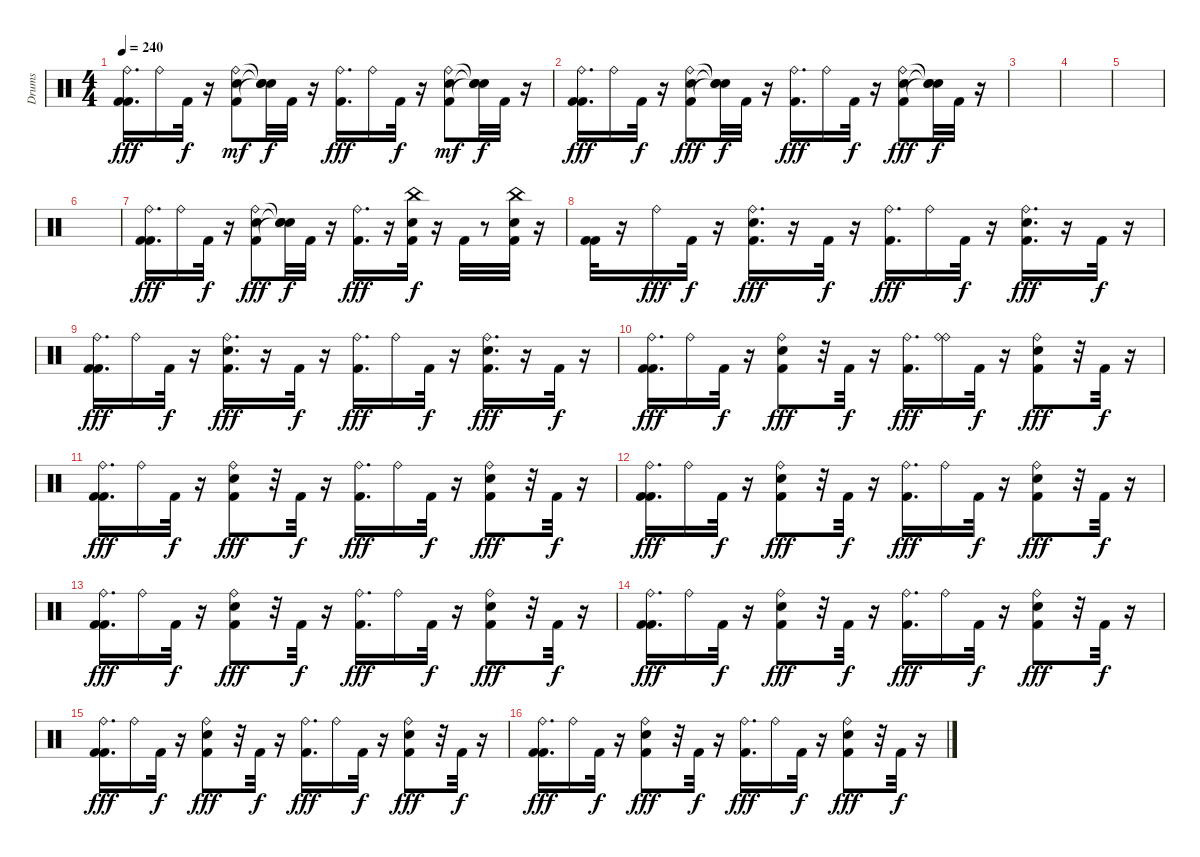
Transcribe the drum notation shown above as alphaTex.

\track ("Drums" "Drums") {instrument percussion}
\staff {score}
\articulation defaults
\ts (4 4)
\tempo 240
\clef neutral
\ks c
("Ride (bell)" "Kick (hit) 2" "Kick (hit) 2").16{d dy fff} "Ride (bell)".16 "Kick (hit) 2".32{dy f} r.16 ("Kick (hit) 2" "Ride (bell)" "Electric Snare (hit)").8{dy mf} ("Snare (hit)"{t} "Snare (hit)"{t} "Snare (hit)"{t}).32{dy f} "Kick (hit) 2".32 r.16 ("Kick (hit) 2" "Ride (bell)").16{d dy fff} "Ride (bell)".16 "Kick (hit) 2".32{dy f} r.16 ("Ride (bell)" "Kick (hit) 2" "Electric Snare (hit)").8{dy mf} ("Snare (hit)"{t} "Snare (hit)"{t} "Snare (hit)"{t}).32{dy f} "Kick (hit) 2".32 r.16 |
("Kick (hit) 2" "Kick (hit) 2" "Ride (bell)").16{d dy fff} "Ride (bell)".16 "Kick (hit) 2".32{dy f} r.16 ("Kick (hit) 2" "Electric Snare (hit)" "Ride (bell)").8{dy fff} ("Snare (hit)"{t} "Snare (hit)"{t} "Snare (hit)"{t}).32{dy f} "Kick (hit) 2".32 r.16 ("Ride (bell)" "Kick (hit) 2").16{d dy fff} "Ride (bell)".16 "Kick (hit) 2".32{dy f} r.16 ("Electric Snare (hit)" "Kick (hit) 2" "Ride (bell)").8{dy fff} ("Snare (hit)"{t} "Snare (hit)"{t} "Snare (hit)"{t}).32{dy f} "Kick (hit) 2".32 r.16 |
|
|
|
|
("Ride (bell)" "Kick (hit) 2" "Kick (hit) 2").16{d dy fff} "Ride (bell)".16 "Kick (hit) 2".32{dy f} r.16 ("Kick (hit) 2" "Electric Snare (hit)" "Ride (bell)").8{dy fff} ("Snare (hit)"{t} "Snare (hit)"{t} "Snare (hit)"{t}).32{dy f} "Kick (hit) 2".32 r.16 ("Ride (bell)" "Kick (hit) 2").16{d dy fff} r.16 ("Kick (hit) 2" "Electric Snare (hit)" "China (hit)").32{dy f} r.16 "Kick (hit) 2".32 r.8 ("Kick (hit) 2" "Electric Snare (hit)" "China (hit)").32 r.16 |
("Kick (hit) 2" "Kick (hit) 2").32 r.16 "Ride (bell)".16{dy fff} "Kick (hit) 2".32{dy f} r.16 ("Kick (hit) 2" "Electric Snare (hit)" "Ride (bell)").16{d dy fff} r.16 "Kick (hit) 2".32{dy f} r.16 ("Ride (bell)" "Kick (hit) 2").16{d dy fff} "Ride (bell)".16 "Kick (hit) 2".32{dy f} r.16 ("Electric Snare (hit)" "Kick (hit) 2" "Ride (bell)").16{d dy fff} r.16 "Kick (hit) 2".32{dy f} r.16 |
("Kick (hit) 2" "Ride (bell)" "Kick (hit) 2").16{d dy fff} "Ride (bell)".16 "Kick (hit) 2".32{dy f} r.16 ("Ride (bell)" "Electric Snare (hit)" "Kick (hit) 2").16{d dy fff} r.16 "Kick (hit) 2".32{dy f} r.16 ("Kick (hit) 2" "Ride (bell)").16{d dy fff} "Ride (bell)".16 "Kick (hit) 2".32{dy f} r.16 ("Electric Snare (hit)" "Kick (hit) 2" "Ride (bell)").16{d dy fff} r.16 "Kick (hit) 2".32{dy f} r.16 |
("Kick (hit) 2" "Kick (hit) 2" "Ride (bell)").16{d dy fff} "Ride (bell)".16 "Kick (hit) 2".32{dy f} r.16 ("Ride (bell)" "Electric Snare (hit)" "Kick (hit) 2").8{dy fff} r.32 "Kick (hit) 2".32{dy f} r.16 ("Kick (hit) 2" "Ride (bell)").16{d dy fff} ("Ride (bell)" "Ride (bell)").16 "Kick (hit) 2".32{dy f} r.16 ("Electric Snare (hit)" "Ride (bell)" "Kick (hit) 2").8{dy fff} r.32 "Kick (hit) 2".32{dy f} r.16 |
("Kick (hit) 2" "Ride (bell)" "Kick (hit) 2").16{d dy fff} "Ride (bell)".16 "Kick (hit) 2".32{dy f} r.16 ("Kick (hit) 2" "Electric Snare (hit)" "Ride (bell)").8{dy fff} r.32 "Kick (hit) 2".32{dy f} r.16 ("Ride (bell)" "Kick (hit) 2").16{d dy fff} "Ride (bell)".16 "Kick (hit) 2".32{dy f} r.16 ("Electric Snare (hit)" "Ride (bell)" "Kick (hit) 2").8{dy fff} r.32 "Kick (hit) 2".32{dy f} r.16 |
("Kick (hit) 2" "Ride (bell)" "Kick (hit) 2").16{d dy fff} "Ride (bell)".16 "Kick (hit) 2".32{dy f} r.16 ("Ride (bell)" "Kick (hit) 2" "Electric Snare (hit)").8{dy fff} r.32 "Kick (hit) 2".32{dy f} r.16 ("Ride (bell)" "Kick (hit) 2").16{d dy fff} "Ride (bell)".16 "Kick (hit) 2".32{dy f} r.16 ("Kick (hit) 2" "Ride (bell)" "Electric Snare (hit)").8{dy fff} r.32 "Kick (hit) 2".32{dy f} r.16 |
("Ride (bell)" "Kick (hit) 2" "Kick (hit) 2").16{d dy fff} "Ride (bell)".16 "Kick (hit) 2".32{dy f} r.16 ("Ride (bell)" "Electric Snare (hit)" "Kick (hit) 2").8{dy fff} r.32 "Kick (hit) 2".32{dy f} r.16 ("Ride (bell)" "Kick (hit) 2").16{d dy fff} "Ride (bell)".16 "Kick (hit) 2".32{dy f} r.16 ("Electric Snare (hit)" "Ride (bell)" "Kick (hit) 2").8{dy fff} r.32 "Kick (hit) 2".32{dy f} r.16 |
("Kick (hit) 2" "Kick (hit) 2" "Ride (bell)").16{d dy fff} "Ride (bell)".16 "Kick (hit) 2".32{dy f} r.16 ("Ride (bell)" "Kick (hit) 2" "Electric Snare (hit)").8{dy fff} r.32 "Kick (hit) 2".32{dy f} r.16 ("Ride (bell)" "Kick (hit) 2").16{d dy fff} "Ride (bell)".16 "Kick (hit) 2".32{dy f} r.16 ("Kick (hit) 2" "Ride (bell)" "Electric Snare (hit)").8{dy fff} r.32 "Kick (hit) 2".32{dy f} r.16 |
("Kick (hit) 2" "Ride (bell)" "Kick (hit) 2").16{d dy fff} "Ride (bell)".16 "Kick (hit) 2".32{dy f} r.16 ("Ride (bell)" "Kick (hit) 2" "Electric Snare (hit)").8{dy fff} r.32 "Kick (hit) 2".32{dy f} r.16 ("Ride (bell)" "Kick (hit) 2").16{d dy fff} "Ride (bell)".16 "Kick (hit) 2".32{dy f} r.16 ("Ride (bell)" "Electric Snare (hit)" "Kick (hit) 2").8{dy fff} r.32 "Kick (hit) 2".32{dy f} r.16 |
("Kick (hit) 2" "Kick (hit) 2" "Ride (bell)").16{d dy fff} "Ride (bell)".16 "Kick (hit) 2".32{dy f} r.16 ("Electric Snare (hit)" "Kick (hit) 2" "Ride (bell)").8{dy fff} r.32 "Kick (hit) 2".32{dy f} r.16 ("Kick (hit) 2" "Ride (bell)").16{d dy fff} "Ride (bell)".16 "Kick (hit) 2".32{dy f} r.16 ("Electric Snare (hit)" "Ride (bell)" "Kick (hit) 2").8{dy fff} r.32 "Kick (hit) 2".32{dy f} r.16
